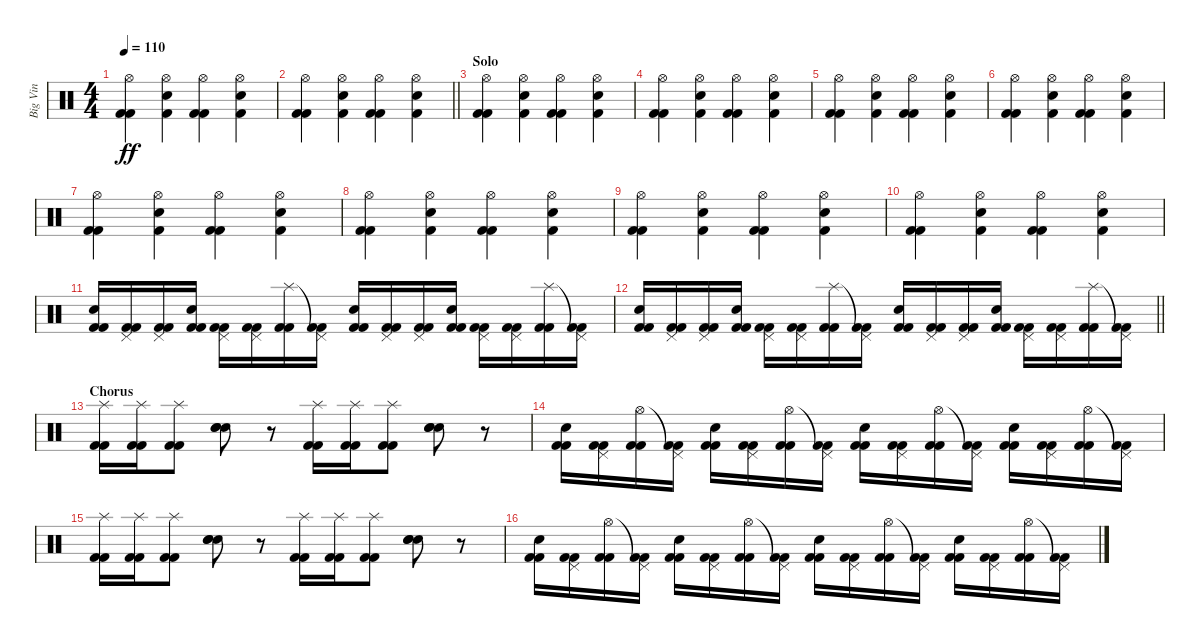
\track ("Big Vin" "Big Vin") {instrument percussion}
\staff {score}
\articulation defaults
\ts (4 4)
\tempo 110
\clef neutral
\ks c
("Hi-Hat (open)" "Kick (hit) 2" "Kick (hit) 2").4{dy ff} ("Hi-Hat (open)" "Snare (hit) 2" "Kick (hit) 2").4 ("Hi-Hat (open)" "Kick (hit) 2" "Kick (hit) 2").4 ("Hi-Hat (open)" "Snare (hit) 2" "Kick (hit) 2").4 |
\barLineRight lightlight
("Hi-Hat (open)" "Kick (hit) 2" "Kick (hit) 2").4 ("Hi-Hat (open)" "Snare (hit) 2" "Kick (hit) 2").4 ("Hi-Hat (open)" "Kick (hit) 2" "Kick (hit) 2").4 ("Hi-Hat (open)" "Snare (hit) 2" "Kick (hit) 2").4 |
\section ("" "Solo")
("Hi-Hat (open)" "Kick (hit) 2" "Kick (hit) 2").4 ("Hi-Hat (open)" "Snare (hit) 2" "Kick (hit) 2").4 ("Hi-Hat (open)" "Kick (hit) 2" "Kick (hit) 2").4 ("Hi-Hat (open)" "Snare (hit) 2" "Kick (hit) 2").4 |
("Hi-Hat (open)" "Kick (hit) 2" "Kick (hit) 2").4 ("Hi-Hat (open)" "Snare (hit) 2" "Kick (hit) 2").4 ("Hi-Hat (open)" "Kick (hit) 2" "Kick (hit) 2").4 ("Hi-Hat (open)" "Snare (hit) 2" "Kick (hit) 2").4 |
("Hi-Hat (open)" "Kick (hit) 2" "Kick (hit) 2").4 ("Hi-Hat (open)" "Snare (hit) 2" "Kick (hit) 2").4 ("Hi-Hat (open)" "Kick (hit) 2" "Kick (hit) 2").4 ("Hi-Hat (open)" "Snare (hit) 2" "Kick (hit) 2").4 |
("Hi-Hat (open)" "Kick (hit) 2" "Kick (hit) 2").4 ("Hi-Hat (open)" "Snare (hit) 2" "Kick (hit) 2").4 ("Hi-Hat (open)" "Kick (hit) 2" "Kick (hit) 2").4 ("Hi-Hat (open)" "Snare (hit) 2" "Kick (hit) 2").4 |
("Hi-Hat (open)" "Kick (hit) 2" "Kick (hit) 2").4 ("Hi-Hat (open)" "Snare (hit) 2" "Kick (hit) 2").4 ("Hi-Hat (open)" "Kick (hit) 2" "Kick (hit) 2").4 ("Hi-Hat (open)" "Snare (hit) 2" "Kick (hit) 2").4 |
("Hi-Hat (open)" "Kick (hit) 2" "Kick (hit) 2").4 ("Hi-Hat (open)" "Snare (hit) 2" "Kick (hit) 2").4 ("Hi-Hat (open)" "Kick (hit) 2" "Kick (hit) 2").4 ("Hi-Hat (open)" "Snare (hit) 2" "Kick (hit) 2").4 |
("Hi-Hat (open)" "Kick (hit) 2" "Kick (hit) 2").4 ("Hi-Hat (open)" "Snare (hit) 2" "Kick (hit) 2").4 ("Hi-Hat (open)" "Kick (hit) 2" "Kick (hit) 2").4 ("Hi-Hat (open)" "Snare (hit) 2" "Kick (hit) 2").4 |
("Hi-Hat (open)" "Kick (hit) 2" "Kick (hit) 2").4 ("Hi-Hat (open)" "Snare (hit) 2" "Kick (hit) 2").4 ("Hi-Hat (open)" "Kick (hit) 2" "Kick (hit) 2").4 ("Hi-Hat (open)" "Snare (hit) 2" "Kick (hit) 2").4 |
("Snare (hit) 2" "Kick (hit) 2" "Kick (hit) 2").16 ("Pedal Hi-Hat (hit)" "Kick (hit) 2" "Kick (hit) 2").16 ("Pedal Hi-Hat (hit)" "Kick (hit) 2" "Kick (hit) 2").16 ("Snare (hit) 2" "Kick (hit) 2" "Kick (hit) 2").16 ("Pedal Hi-Hat (hit)" "Kick (hit) 2" "Kick (hit) 2").16 ("Pedal Hi-Hat (hit)" "Kick (hit) 2" "Kick (hit) 2").16 ("Splash (hit)" "Kick (hit) 2" "Kick (hit) 2").16 ("Pedal Hi-Hat (hit)"{t} "Kick (hit) 2" "Kick (hit) 2").16 ("Snare (hit) 2" "Kick (hit) 2" "Kick (hit) 2").16 ("Pedal Hi-Hat (hit)" "Kick (hit) 2" "Kick (hit) 2").16 ("Pedal Hi-Hat (hit)" "Kick (hit) 2" "Kick (hit) 2").16 ("Snare (hit) 2" "Kick (hit) 2" "Kick (hit) 2").16 ("Pedal Hi-Hat (hit)" "Kick (hit) 2" "Kick (hit) 2").16 ("Pedal Hi-Hat (hit)" "Kick (hit) 2" "Kick (hit) 2").16 ("Splash (hit)" "Kick (hit) 2" "Kick (hit) 2").16 ("Pedal Hi-Hat (hit)"{t} "Kick (hit) 2" "Kick (hit) 2").16 |
\barLineRight lightlight
("Snare (hit) 2" "Kick (hit) 2" "Kick (hit) 2").16 ("Pedal Hi-Hat (hit)" "Kick (hit) 2" "Kick (hit) 2").16 ("Pedal Hi-Hat (hit)" "Kick (hit) 2" "Kick (hit) 2").16 ("Snare (hit) 2" "Kick (hit) 2" "Kick (hit) 2").16 ("Pedal Hi-Hat (hit)" "Kick (hit) 2" "Kick (hit) 2").16 ("Pedal Hi-Hat (hit)" "Kick (hit) 2" "Kick (hit) 2").16 ("Splash (hit)" "Kick (hit) 2" "Kick (hit) 2").16 ("Pedal Hi-Hat (hit)"{t} "Kick (hit) 2" "Kick (hit) 2").16 ("Snare (hit) 2" "Kick (hit) 2" "Kick (hit) 2").16 ("Pedal Hi-Hat (hit)" "Kick (hit) 2" "Kick (hit) 2").16 ("Pedal Hi-Hat (hit)" "Kick (hit) 2" "Kick (hit) 2").16 ("Snare (hit) 2" "Kick (hit) 2" "Kick (hit) 2").16 ("Pedal Hi-Hat (hit)" "Kick (hit) 2" "Kick (hit) 2").16 ("Pedal Hi-Hat (hit)" "Kick (hit) 2" "Kick (hit) 2").16 ("Splash (hit)" "Kick (hit) 2" "Kick (hit) 2").16 ("Pedal Hi-Hat (hit)"{t} "Kick (hit) 2" "Kick (hit) 2").16 |
\section ("" "Chorus")
("Splash (hit)" "Kick (hit) 2" "Kick (hit) 2").16 ("Splash (hit)" "Kick (hit) 2" "Kick (hit) 2").16 ("Splash (hit)" "Kick (hit) 2" "Kick (hit) 2").8 ("Snare (hit) 2" "Snare (hit) 2" "Snare (hit) 2").8 r.8 ("Splash (hit)" "Kick (hit) 2" "Kick (hit) 2").16 ("Splash (hit)" "Kick (hit) 2" "Kick (hit) 2").16 ("Splash (hit)" "Kick (hit) 2" "Kick (hit) 2").8 ("Snare (hit) 2" "Snare (hit) 2" "Snare (hit) 2").8 r.8 |
("Snare (hit) 2" "Kick (hit) 2" "Kick (hit) 2").16 ("Pedal Hi-Hat (hit)" "Kick (hit) 2" "Kick (hit) 2").16 ("Hi-Hat (open)" "Kick (hit) 2" "Kick (hit) 2").16 ("Pedal Hi-Hat (hit)"{t} "Kick (hit) 2" "Kick (hit) 2").16 ("Snare (hit) 2" "Kick (hit) 2" "Kick (hit) 2").16 ("Pedal Hi-Hat (hit)" "Kick (hit) 2" "Kick (hit) 2").16 ("Hi-Hat (open)" "Kick (hit) 2" "Kick (hit) 2").16 ("Pedal Hi-Hat (hit)"{t} "Kick (hit) 2" "Kick (hit) 2").16 ("Snare (hit) 2" "Kick (hit) 2" "Kick (hit) 2").16 ("Pedal Hi-Hat (hit)" "Kick (hit) 2" "Kick (hit) 2").16 ("Hi-Hat (open)" "Kick (hit) 2" "Kick (hit) 2").16 ("Pedal Hi-Hat (hit)"{t} "Kick (hit) 2" "Kick (hit) 2").16 ("Snare (hit) 2" "Kick (hit) 2" "Kick (hit) 2").16 ("Pedal Hi-Hat (hit)" "Kick (hit) 2" "Kick (hit) 2").16 ("Hi-Hat (open)" "Kick (hit) 2" "Kick (hit) 2").16 ("Pedal Hi-Hat (hit)"{t} "Kick (hit) 2" "Kick (hit) 2").16 |
("Splash (hit)" "Kick (hit) 2" "Kick (hit) 2").16 ("Splash (hit)" "Kick (hit) 2" "Kick (hit) 2").16 ("Splash (hit)" "Kick (hit) 2" "Kick (hit) 2").8 ("Snare (hit) 2" "Snare (hit) 2" "Snare (hit) 2").8 r.8 ("Splash (hit)" "Kick (hit) 2" "Kick (hit) 2").16 ("Splash (hit)" "Kick (hit) 2" "Kick (hit) 2").16 ("Splash (hit)" "Kick (hit) 2" "Kick (hit) 2").8 ("Snare (hit) 2" "Snare (hit) 2" "Snare (hit) 2").8 r.8 |
("Snare (hit) 2" "Kick (hit) 2" "Kick (hit) 2").16 ("Pedal Hi-Hat (hit)" "Kick (hit) 2" "Kick (hit) 2").16 ("Hi-Hat (open)" "Kick (hit) 2" "Kick (hit) 2").16 ("Pedal Hi-Hat (hit)"{t} "Kick (hit) 2" "Kick (hit) 2").16 ("Snare (hit) 2" "Kick (hit) 2" "Kick (hit) 2").16 ("Pedal Hi-Hat (hit)" "Kick (hit) 2" "Kick (hit) 2").16 ("Hi-Hat (open)" "Kick (hit) 2" "Kick (hit) 2").16 ("Pedal Hi-Hat (hit)"{t} "Kick (hit) 2" "Kick (hit) 2").16 ("Snare (hit) 2" "Kick (hit) 2" "Kick (hit) 2").16 ("Pedal Hi-Hat (hit)" "Kick (hit) 2" "Kick (hit) 2").16 ("Hi-Hat (open)" "Kick (hit) 2" "Kick (hit) 2").16 ("Pedal Hi-Hat (hit)"{t} "Kick (hit) 2" "Kick (hit) 2").16 ("Snare (hit) 2" "Kick (hit) 2" "Kick (hit) 2").16 ("Pedal Hi-Hat (hit)" "Kick (hit) 2" "Kick (hit) 2").16 ("Hi-Hat (open)" "Kick (hit) 2" "Kick (hit) 2").16 ("Pedal Hi-Hat (hit)"{t} "Kick (hit) 2" "Kick (hit) 2").16
